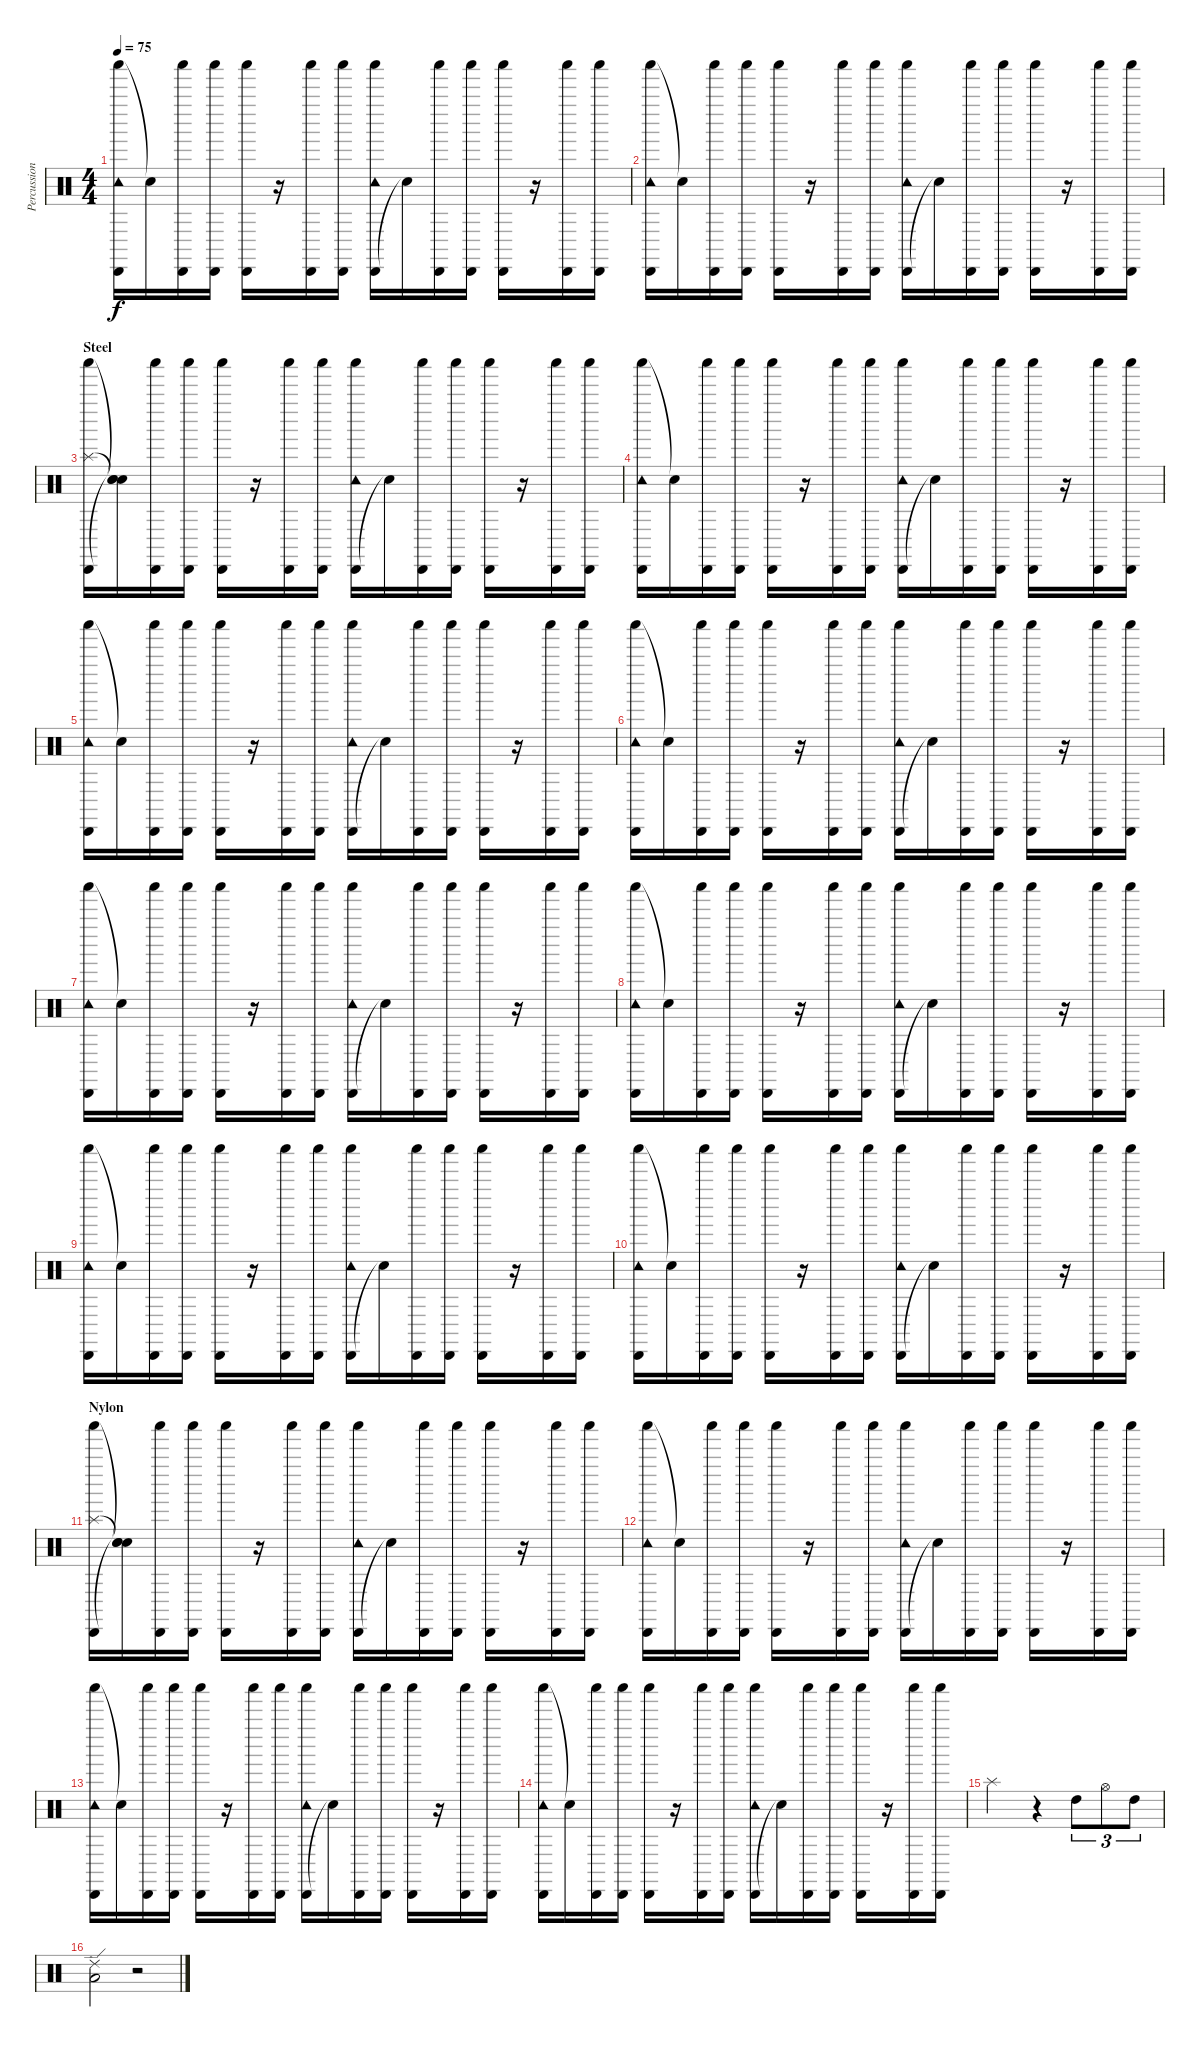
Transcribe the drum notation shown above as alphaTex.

\track ("Percussion" "Percussion") {instrument percussion}
\staff {score}
\articulation defaults
\ts (4 4)
\tempo 75
\clef neutral
\ks c
("Shaker (hit)" "Tambourine (hit)" "Cabasa (hit)").16{dy f volume 7} "Snare (hit)"{t}.16 ("Shaker (hit)" "Cabasa (hit)").16 ("Shaker (hit)" "Cabasa (hit)").16 ("Shaker (hit)" "Cabasa (hit)").16 r.16 ("Shaker (hit)" "Cabasa (hit)").16 ("Shaker (hit)" "Cabasa (hit)").16 ("Cabasa (hit)" "Tambourine (hit)" "Shaker (hit)").16 "Snare (hit)"{t}.16 ("Cabasa (hit)" "Shaker (hit)").16 ("Cabasa (hit)" "Shaker (hit)").16 ("Cabasa (hit)" "Shaker (hit)").16 r.16 ("Cabasa (hit)" "Shaker (hit)").16 ("Cabasa (hit)" "Shaker (hit)").16 |
("Shaker (hit)" "Tambourine (hit)" "Cabasa (hit)").16{volume 7} "Snare (hit)"{t}.16 ("Shaker (hit)" "Cabasa (hit)").16 ("Shaker (hit)" "Cabasa (hit)").16 ("Shaker (hit)" "Cabasa (hit)").16 r.16 ("Shaker (hit)" "Cabasa (hit)").16 ("Shaker (hit)" "Cabasa (hit)").16 ("Cabasa (hit)" "Tambourine (hit)" "Shaker (hit)").16 "Snare (hit)"{t}.16 ("Cabasa (hit)" "Shaker (hit)").16 ("Cabasa (hit)" "Shaker (hit)").16 ("Cabasa (hit)" "Shaker (hit)").16 r.16 ("Cabasa (hit)" "Shaker (hit)").16 ("Cabasa (hit)" "Shaker (hit)").16 |
\section ("" "Steel")
("Shaker (hit)" "Splash (hit)" "Cabasa (hit)").16{volume 7} ("Snare (hit)"{t} "Snare (hit)"{t} "Snare (hit)"{t}).16 ("Shaker (hit)" "Cabasa (hit)").16 ("Shaker (hit)" "Cabasa (hit)").16 ("Shaker (hit)" "Cabasa (hit)").16 r.16 ("Shaker (hit)" "Cabasa (hit)").16 ("Shaker (hit)" "Cabasa (hit)").16 ("Cabasa (hit)" "Tambourine (hit)" "Shaker (hit)").16 "Snare (hit)"{t}.16 ("Cabasa (hit)" "Shaker (hit)").16 ("Cabasa (hit)" "Shaker (hit)").16 ("Cabasa (hit)" "Shaker (hit)").16 r.16 ("Cabasa (hit)" "Shaker (hit)").16 ("Cabasa (hit)" "Shaker (hit)").16 |
("Shaker (hit)" "Tambourine (hit)" "Cabasa (hit)").16{volume 7} "Snare (hit)"{t}.16 ("Shaker (hit)" "Cabasa (hit)").16 ("Shaker (hit)" "Cabasa (hit)").16 ("Shaker (hit)" "Cabasa (hit)").16 r.16 ("Shaker (hit)" "Cabasa (hit)").16 ("Shaker (hit)" "Cabasa (hit)").16 ("Cabasa (hit)" "Tambourine (hit)" "Shaker (hit)").16 "Snare (hit)"{t}.16 ("Cabasa (hit)" "Shaker (hit)").16 ("Cabasa (hit)" "Shaker (hit)").16 ("Cabasa (hit)" "Shaker (hit)").16 r.16 ("Cabasa (hit)" "Shaker (hit)").16 ("Cabasa (hit)" "Shaker (hit)").16 |
("Shaker (hit)" "Tambourine (hit)" "Cabasa (hit)").16{volume 7} "Snare (hit)"{t}.16 ("Shaker (hit)" "Cabasa (hit)").16 ("Shaker (hit)" "Cabasa (hit)").16 ("Shaker (hit)" "Cabasa (hit)").16 r.16 ("Shaker (hit)" "Cabasa (hit)").16 ("Shaker (hit)" "Cabasa (hit)").16 ("Cabasa (hit)" "Tambourine (hit)" "Shaker (hit)").16 "Snare (hit)"{t}.16 ("Cabasa (hit)" "Shaker (hit)").16 ("Cabasa (hit)" "Shaker (hit)").16 ("Cabasa (hit)" "Shaker (hit)").16 r.16 ("Cabasa (hit)" "Shaker (hit)").16 ("Cabasa (hit)" "Shaker (hit)").16 |
("Shaker (hit)" "Tambourine (hit)" "Cabasa (hit)").16{volume 7} "Snare (hit)"{t}.16 ("Shaker (hit)" "Cabasa (hit)").16 ("Shaker (hit)" "Cabasa (hit)").16 ("Shaker (hit)" "Cabasa (hit)").16 r.16 ("Shaker (hit)" "Cabasa (hit)").16 ("Shaker (hit)" "Cabasa (hit)").16 ("Cabasa (hit)" "Tambourine (hit)" "Shaker (hit)").16 "Snare (hit)"{t}.16 ("Cabasa (hit)" "Shaker (hit)").16 ("Cabasa (hit)" "Shaker (hit)").16 ("Cabasa (hit)" "Shaker (hit)").16 r.16 ("Cabasa (hit)" "Shaker (hit)").16 ("Cabasa (hit)" "Shaker (hit)").16 |
("Shaker (hit)" "Tambourine (hit)" "Cabasa (hit)").16{volume 7} "Snare (hit)"{t}.16 ("Shaker (hit)" "Cabasa (hit)").16 ("Shaker (hit)" "Cabasa (hit)").16 ("Shaker (hit)" "Cabasa (hit)").16 r.16 ("Shaker (hit)" "Cabasa (hit)").16 ("Shaker (hit)" "Cabasa (hit)").16 ("Cabasa (hit)" "Tambourine (hit)" "Shaker (hit)").16 "Snare (hit)"{t}.16 ("Cabasa (hit)" "Shaker (hit)").16 ("Cabasa (hit)" "Shaker (hit)").16 ("Cabasa (hit)" "Shaker (hit)").16 r.16 ("Cabasa (hit)" "Shaker (hit)").16 ("Cabasa (hit)" "Shaker (hit)").16 |
("Shaker (hit)" "Tambourine (hit)" "Cabasa (hit)").16{volume 7} "Snare (hit)"{t}.16 ("Shaker (hit)" "Cabasa (hit)").16 ("Shaker (hit)" "Cabasa (hit)").16 ("Shaker (hit)" "Cabasa (hit)").16 r.16 ("Shaker (hit)" "Cabasa (hit)").16 ("Shaker (hit)" "Cabasa (hit)").16 ("Cabasa (hit)" "Tambourine (hit)" "Shaker (hit)").16 "Snare (hit)"{t}.16 ("Cabasa (hit)" "Shaker (hit)").16 ("Cabasa (hit)" "Shaker (hit)").16 ("Cabasa (hit)" "Shaker (hit)").16 r.16 ("Cabasa (hit)" "Shaker (hit)").16 ("Cabasa (hit)" "Shaker (hit)").16 |
("Shaker (hit)" "Tambourine (hit)" "Cabasa (hit)").16{volume 7} "Snare (hit)"{t}.16 ("Shaker (hit)" "Cabasa (hit)").16 ("Shaker (hit)" "Cabasa (hit)").16 ("Shaker (hit)" "Cabasa (hit)").16 r.16 ("Shaker (hit)" "Cabasa (hit)").16 ("Shaker (hit)" "Cabasa (hit)").16 ("Cabasa (hit)" "Tambourine (hit)" "Shaker (hit)").16 "Snare (hit)"{t}.16 ("Cabasa (hit)" "Shaker (hit)").16 ("Cabasa (hit)" "Shaker (hit)").16 ("Cabasa (hit)" "Shaker (hit)").16 r.16 ("Cabasa (hit)" "Shaker (hit)").16 ("Cabasa (hit)" "Shaker (hit)").16 |
("Shaker (hit)" "Tambourine (hit)" "Cabasa (hit)").16{volume 7} "Snare (hit)"{t}.16 ("Shaker (hit)" "Cabasa (hit)").16 ("Shaker (hit)" "Cabasa (hit)").16 ("Shaker (hit)" "Cabasa (hit)").16 r.16 ("Shaker (hit)" "Cabasa (hit)").16 ("Shaker (hit)" "Cabasa (hit)").16 ("Cabasa (hit)" "Tambourine (hit)" "Shaker (hit)").16 "Snare (hit)"{t}.16 ("Cabasa (hit)" "Shaker (hit)").16 ("Cabasa (hit)" "Shaker (hit)").16 ("Cabasa (hit)" "Shaker (hit)").16 r.16 ("Cabasa (hit)" "Shaker (hit)").16 ("Cabasa (hit)" "Shaker (hit)").16 |
\section ("" "Nylon")
("Shaker (hit)" "Splash (hit)" "Cabasa (hit)").16{volume 7} ("Snare (hit)"{t} "Snare (hit)"{t} "Snare (hit)"{t}).16 ("Shaker (hit)" "Cabasa (hit)").16 ("Shaker (hit)" "Cabasa (hit)").16 ("Shaker (hit)" "Cabasa (hit)").16 r.16 ("Shaker (hit)" "Cabasa (hit)").16 ("Shaker (hit)" "Cabasa (hit)").16 ("Cabasa (hit)" "Tambourine (hit)" "Shaker (hit)").16 "Snare (hit)"{t}.16 ("Cabasa (hit)" "Shaker (hit)").16 ("Cabasa (hit)" "Shaker (hit)").16 ("Cabasa (hit)" "Shaker (hit)").16 r.16 ("Cabasa (hit)" "Shaker (hit)").16 ("Cabasa (hit)" "Shaker (hit)").16 |
("Shaker (hit)" "Tambourine (hit)" "Cabasa (hit)").16{volume 7} "Snare (hit)"{t}.16 ("Shaker (hit)" "Cabasa (hit)").16 ("Shaker (hit)" "Cabasa (hit)").16 ("Shaker (hit)" "Cabasa (hit)").16 r.16 ("Shaker (hit)" "Cabasa (hit)").16 ("Shaker (hit)" "Cabasa (hit)").16 ("Cabasa (hit)" "Tambourine (hit)" "Shaker (hit)").16 "Snare (hit)"{t}.16 ("Cabasa (hit)" "Shaker (hit)").16 ("Cabasa (hit)" "Shaker (hit)").16 ("Cabasa (hit)" "Shaker (hit)").16 r.16 ("Cabasa (hit)" "Shaker (hit)").16 ("Cabasa (hit)" "Shaker (hit)").16 |
("Shaker (hit)" "Tambourine (hit)" "Cabasa (hit)").16{volume 7} "Snare (hit)"{t}.16 ("Shaker (hit)" "Cabasa (hit)").16 ("Shaker (hit)" "Cabasa (hit)").16 ("Shaker (hit)" "Cabasa (hit)").16 r.16 ("Shaker (hit)" "Cabasa (hit)").16 ("Shaker (hit)" "Cabasa (hit)").16 ("Cabasa (hit)" "Tambourine (hit)" "Shaker (hit)").16 "Snare (hit)"{t}.16 ("Cabasa (hit)" "Shaker (hit)").16 ("Cabasa (hit)" "Shaker (hit)").16 ("Cabasa (hit)" "Shaker (hit)").16 r.16 ("Cabasa (hit)" "Shaker (hit)").16 ("Cabasa (hit)" "Shaker (hit)").16 |
("Shaker (hit)" "Tambourine (hit)" "Cabasa (hit)").16{volume 7} "Snare (hit)"{t}.16 ("Shaker (hit)" "Cabasa (hit)").16 ("Shaker (hit)" "Cabasa (hit)").16 ("Shaker (hit)" "Cabasa (hit)").16 r.16 ("Shaker (hit)" "Cabasa (hit)").16 ("Shaker (hit)" "Cabasa (hit)").16 ("Cabasa (hit)" "Tambourine (hit)" "Shaker (hit)").16 "Snare (hit)"{t}.16 ("Cabasa (hit)" "Shaker (hit)").16 ("Cabasa (hit)" "Shaker (hit)").16 ("Cabasa (hit)" "Shaker (hit)").16 r.16 ("Cabasa (hit)" "Shaker (hit)").16 ("Cabasa (hit)" "Shaker (hit)").16 |
"Splash (hit)".2{volume 13} r.4 "High Tom (hit)".8{tu (3 2)} "Hi-Hat (open)".8{tu (3 2)} "High Tom (hit)".8{tu (3 2)} |
("Low Tom (hit)" "Ride (edge) 2").2 r.2
